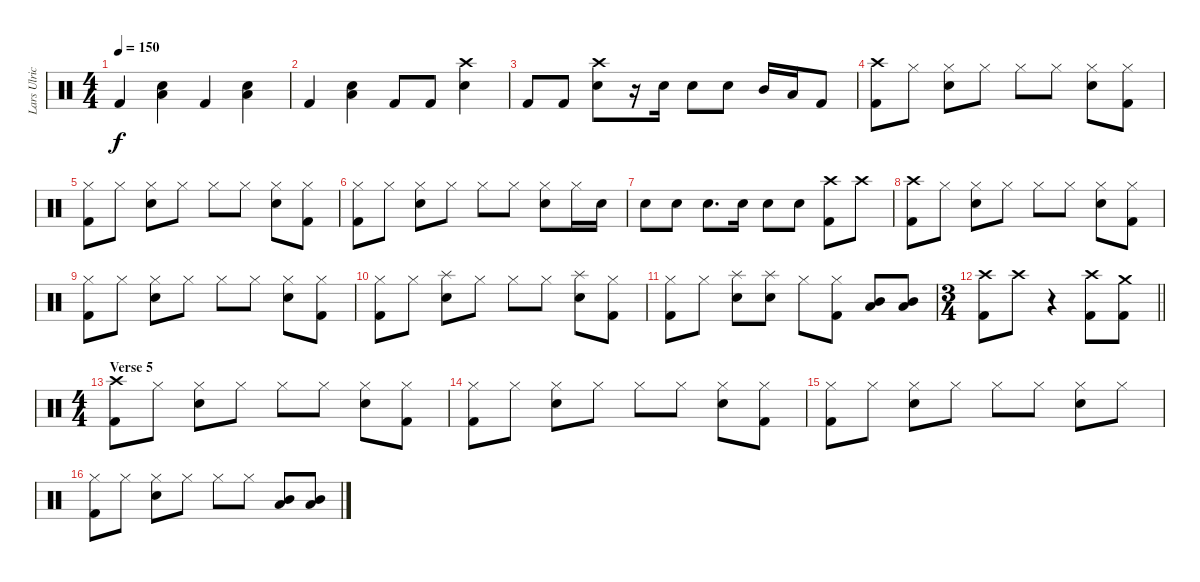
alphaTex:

\track ("Lars Ulrich" "Lars Ulric") {instrument percussion}
\staff {score}
\articulation defaults
\ts (4 4)
\tempo 150
\clef neutral
\ks c "Kick (hit) 2".4{dy f}
("Low Floor Tom (hit)" "Snare (hit) 2").4 "Kick (hit) 2".4 ("Low Floor Tom (hit)" "Snare (hit) 2").4 |
"Kick (hit) 2".4 ("Low Floor Tom (hit)" "Snare (hit) 2").4 "Kick (hit) 2".8 "Kick (hit) 2".8 ("Crash high (hit)" "Snare (hit) 2").4 |
"Kick (hit) 2".8 "Kick (hit) 2".8 ("Crash high (hit)" "Snare (hit) 2").8 r.16 "Snare (hit) 2".16 "Snare (hit) 2".8 "Snare (hit) 2".8 "Mid Tom (hit)".16 "Low Tom (hit)".16 "Kick (hit) 2".8 |
("Crash high (hit)" "Kick (hit) 2").8 "Hi-Hat (closed)".8 ("Hi-Hat (closed)" "Snare (hit) 2").8 "Hi-Hat (closed)".8 "Hi-Hat (closed)".8 "Hi-Hat (closed)".8 ("Hi-Hat (closed)" "Snare (hit) 2").8 ("Hi-Hat (closed)" "Kick (hit) 2").8 |
("Hi-Hat (closed)" "Kick (hit) 2").8 "Hi-Hat (closed)".8 ("Hi-Hat (closed)" "Snare (hit) 2").8 "Hi-Hat (closed)".8 "Hi-Hat (closed)".8 "Hi-Hat (closed)".8 ("Hi-Hat (closed)" "Snare (hit) 2").8 ("Hi-Hat (closed)" "Kick (hit) 2").8 |
("Hi-Hat (closed)" "Kick (hit) 2").8 "Hi-Hat (closed)".8 ("Hi-Hat (closed)" "Snare (hit) 2").8 "Hi-Hat (closed)".8 "Hi-Hat (closed)".8 "Hi-Hat (closed)".8 ("Hi-Hat (closed)" "Snare (hit) 2").8 "Hi-Hat (closed)".16 "Snare (hit) 2".16 |
"Snare (hit) 2".8 "Snare (hit) 2".8 "Snare (hit) 2".8{d} "Snare (hit) 2".16 "Snare (hit) 2".8 "Snare (hit) 2".8 ("Crash high (hit)" "Kick (hit) 2").8 "Crash high (hit)".8{volume 0} |
("Crash high (hit)" "Kick (hit) 2").8{volume 16} "Hi-Hat (closed)".8 ("Hi-Hat (closed)" "Snare (hit) 2").8 "Hi-Hat (closed)".8 "Hi-Hat (closed)".8 "Hi-Hat (closed)".8 ("Hi-Hat (closed)" "Snare (hit) 2").8 ("Hi-Hat (closed)" "Kick (hit) 2").8 |
("Hi-Hat (closed)" "Kick (hit) 2").8 "Hi-Hat (closed)".8 ("Hi-Hat (closed)" "Snare (hit) 2").8 "Hi-Hat (closed)".8 "Hi-Hat (closed)".8 "Hi-Hat (closed)".8 ("Hi-Hat (closed)" "Snare (hit) 2").8 ("Hi-Hat (closed)" "Kick (hit) 2").8 |
("Hi-Hat (closed)" "Kick (hit) 2").8 "Hi-Hat (closed)".8 ("Splash (hit)" "Snare (hit) 2").8 "Hi-Hat (closed)".8 "Hi-Hat (closed)".8 "Hi-Hat (closed)".8 ("Splash (hit)" "Snare (hit) 2").8 ("Hi-Hat (closed)" "Kick (hit) 2").8 |
("Hi-Hat (closed)" "Kick (hit) 2").8 "Hi-Hat (closed)".8 ("Splash (hit)" "Snare (hit) 2").8 ("Splash (hit)" "Snare (hit) 2").8 "Hi-Hat (closed)".8 ("Hi-Hat (closed)" "Kick (hit) 2").8 ("Mid Tom (hit)" "Low Tom (hit)").8 ("Mid Tom (hit)" "Low Tom (hit)").8 |
\ts (3 4)
\barLineRight lightlight
("Crash high (hit)" "Kick (hit) 2").8 "Crash high (hit)".8{volume 0} r.4 ("Crash high (hit)" "Kick (hit) 2").8{volume 16} ("Crash medium (hit)" "Kick (hit) 2").8 |
\ts (4 4)
\section ("" "Verse 5")
("Crash high (hit)" "Kick (hit) 2").8 "Hi-Hat (closed)".8 ("Hi-Hat (closed)" "Snare (hit) 2").8 "Hi-Hat (closed)".8 "Hi-Hat (closed)".8 "Hi-Hat (closed)".8 ("Hi-Hat (closed)" "Snare (hit) 2").8 ("Hi-Hat (closed)" "Kick (hit) 2").8 |
("Hi-Hat (closed)" "Kick (hit) 2").8 "Hi-Hat (closed)".8 ("Hi-Hat (closed)" "Snare (hit) 2").8 "Hi-Hat (closed)".8 "Hi-Hat (closed)".8 "Hi-Hat (closed)".8 ("Hi-Hat (closed)" "Snare (hit) 2").8 ("Hi-Hat (closed)" "Kick (hit) 2").8 |
("Hi-Hat (closed)" "Kick (hit) 2").8 "Hi-Hat (closed)".8 ("Hi-Hat (closed)" "Snare (hit) 2").8 "Hi-Hat (closed)".8 "Hi-Hat (closed)".8 "Hi-Hat (closed)".8 ("Hi-Hat (closed)" "Snare (hit) 2").8 "Hi-Hat (closed)".8 |
("Hi-Hat (closed)" "Kick (hit) 2").8 "Hi-Hat (closed)".8 ("Hi-Hat (closed)" "Snare (hit) 2").8 "Hi-Hat (closed)".8 "Hi-Hat (closed)".8 "Hi-Hat (closed)".8 ("Low Tom (hit)" "Mid Tom (hit)").8 ("Low Tom (hit)" "Mid Tom (hit)").8
